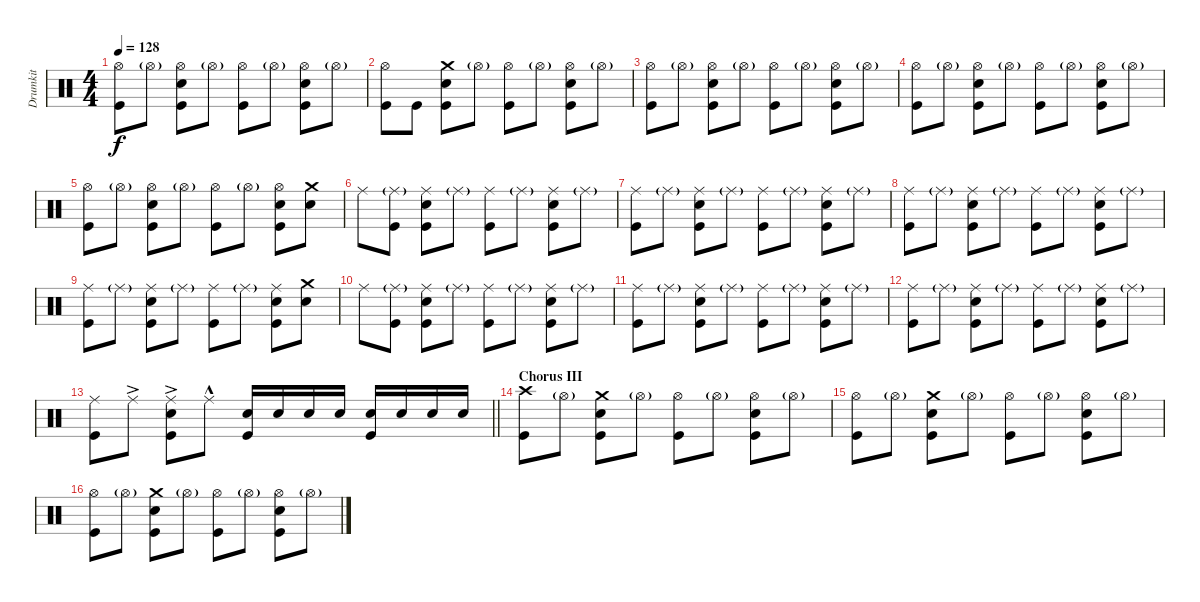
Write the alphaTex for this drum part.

\track ("Drumkit" "Drumkit") {instrument percussion}
\staff
\articulation defaults
\ts (4 4)
\tempo 128
\clef neutral
\ks c
("Hi-Hat (open)" "Kick (hit)").8{dy f} "Hi-Hat (open)"{g}.8 ("Hi-Hat (open)" "Kick (hit)" "Snare (hit) 2").8 "Hi-Hat (open)"{g}.8 ("Hi-Hat (open)" "Kick (hit)").8 "Hi-Hat (open)"{g}.8 ("Hi-Hat (open)" "Kick (hit)" "Snare (hit) 2").8 "Hi-Hat (open)"{g}.8 |
("Hi-Hat (open)" "Kick (hit)").8 "Kick (hit)".8 ("Crash medium (hit)" "Kick (hit)" "Snare (hit) 2").8 "Hi-Hat (open)"{g}.8 ("Hi-Hat (open)" "Kick (hit)").8 "Hi-Hat (open)"{g}.8 ("Hi-Hat (open)" "Kick (hit)" "Snare (hit) 2").8 "Hi-Hat (open)"{g}.8 |
("Hi-Hat (open)" "Kick (hit)").8 "Hi-Hat (open)"{g}.8 ("Hi-Hat (open)" "Kick (hit)" "Snare (hit) 2").8 "Hi-Hat (open)"{g}.8 ("Hi-Hat (open)" "Kick (hit)").8 "Hi-Hat (open)"{g}.8 ("Hi-Hat (open)" "Kick (hit)" "Snare (hit) 2").8 "Hi-Hat (open)"{g}.8 |
("Hi-Hat (open)" "Kick (hit)").8 "Hi-Hat (open)"{g}.8 ("Hi-Hat (open)" "Kick (hit)" "Snare (hit) 2").8 "Hi-Hat (open)"{g}.8 ("Hi-Hat (open)" "Kick (hit)").8 "Hi-Hat (open)"{g}.8 ("Hi-Hat (open)" "Kick (hit)" "Snare (hit) 2").8 "Hi-Hat (open)"{g}.8 |
("Hi-Hat (open)" "Kick (hit)").8 "Hi-Hat (open)"{g}.8 ("Hi-Hat (open)" "Kick (hit)" "Snare (hit) 2").8 "Hi-Hat (open)"{g}.8 ("Hi-Hat (open)" "Kick (hit)").8 "Hi-Hat (open)"{g}.8 ("Hi-Hat (open)" "Kick (hit)" "Snare (hit) 2").8 ("Crash medium (hit)" "Snare (hit) 2").8 |
"Ride (middle)".8 ("Ride (middle)"{g} "Kick (hit)").8 ("Ride (middle)" "Snare (hit) 2" "Kick (hit)").8 "Ride (middle)"{g}.8 ("Ride (middle)" "Kick (hit)").8 "Ride (middle)"{g}.8 ("Ride (middle)" "Snare (hit) 2" "Kick (hit)").8 "Ride (middle)"{g}.8 |
("Ride (middle)" "Kick (hit)").8 "Ride (middle)"{g}.8 ("Ride (middle)" "Snare (hit) 2" "Kick (hit)").8 "Ride (middle)"{g}.8 ("Ride (middle)" "Kick (hit)").8 "Ride (middle)"{g}.8 ("Ride (middle)" "Snare (hit) 2" "Kick (hit)").8 "Ride (middle)"{g}.8 |
("Ride (middle)" "Kick (hit)").8 "Ride (middle)"{g}.8 ("Ride (middle)" "Snare (hit) 2" "Kick (hit)").8 "Ride (middle)"{g}.8 ("Ride (middle)" "Kick (hit)").8 "Ride (middle)"{g}.8 ("Ride (middle)" "Snare (hit) 2" "Kick (hit)").8 "Ride (middle)"{g}.8 |
("Ride (middle)" "Kick (hit)").8 "Ride (middle)"{g}.8 ("Ride (middle)" "Snare (hit) 2" "Kick (hit)").8 "Ride (middle)"{g}.8 ("Ride (middle)" "Kick (hit)").8 "Ride (middle)"{g}.8 ("Ride (middle)" "Snare (hit) 2" "Kick (hit)").8 ("Crash medium (hit)" "Snare (hit) 2").8 |
"Ride (middle)".8 ("Ride (middle)"{g} "Kick (hit)").8 ("Ride (middle)" "Snare (hit) 2" "Kick (hit)").8 "Ride (middle)"{g}.8 ("Ride (middle)" "Kick (hit)").8 "Ride (middle)"{g}.8 ("Ride (middle)" "Snare (hit) 2" "Kick (hit)").8 "Ride (middle)"{g}.8 |
("Ride (middle)" "Kick (hit)").8 "Ride (middle)"{g}.8 ("Ride (middle)" "Snare (hit) 2" "Kick (hit)").8 "Ride (middle)"{g}.8 ("Ride (middle)" "Kick (hit)").8 "Ride (middle)"{g}.8 ("Ride (middle)" "Snare (hit) 2" "Kick (hit)").8 "Ride (middle)"{g}.8 |
("Ride (middle)" "Kick (hit)").8 "Ride (middle)"{g}.8 ("Ride (middle)" "Snare (hit) 2" "Kick (hit)").8 "Ride (middle)"{g}.8 ("Ride (middle)" "Kick (hit)").8 "Ride (middle)"{g}.8 ("Ride (middle)" "Snare (hit) 2" "Kick (hit)").8 "Ride (middle)"{g}.8 |
\barLineRight lightlight
("Ride (middle)" "Kick (hit)").8 "Ride (middle)"{ac}.8 ("Ride (middle)"{ac} "Snare (hit) 2" "Kick (hit)").8 "Ride (middle)"{hac}.8 ("Snare (hit) 2" "Kick (hit)").16 "Snare (hit) 2".16 "Snare (hit) 2".16 "Snare (hit) 2".16 ("Snare (hit) 2" "Kick (hit)").16 "Snare (hit) 2".16 "Snare (hit) 2".16 "Snare (hit) 2".16 |
\section ("" "Chorus III")
("Crash high (hit)" "Kick (hit)").8 "Hi-Hat (open)"{g}.8 ("Crash medium (hit)" "Kick (hit)" "Snare (hit) 2").8 "Hi-Hat (open)"{g}.8 ("Hi-Hat (open)" "Kick (hit)").8 "Hi-Hat (open)"{g}.8 ("Hi-Hat (open)" "Kick (hit)" "Snare (hit) 2").8 "Hi-Hat (open)"{g}.8 |
("Hi-Hat (open)" "Kick (hit)").8 "Hi-Hat (open)"{g}.8 ("Crash medium (hit)" "Kick (hit)" "Snare (hit) 2").8 "Hi-Hat (open)"{g}.8 ("Hi-Hat (open)" "Kick (hit)").8 "Hi-Hat (open)"{g}.8 ("Hi-Hat (open)" "Kick (hit)" "Snare (hit) 2").8 "Hi-Hat (open)"{g}.8 |
("Hi-Hat (open)" "Kick (hit)").8 "Hi-Hat (open)"{g}.8 ("Crash medium (hit)" "Kick (hit)" "Snare (hit) 2").8 "Hi-Hat (open)"{g}.8 ("Hi-Hat (open)" "Kick (hit)").8 "Hi-Hat (open)"{g}.8 ("Hi-Hat (open)" "Kick (hit)" "Snare (hit) 2").8 "Hi-Hat (open)"{g}.8
